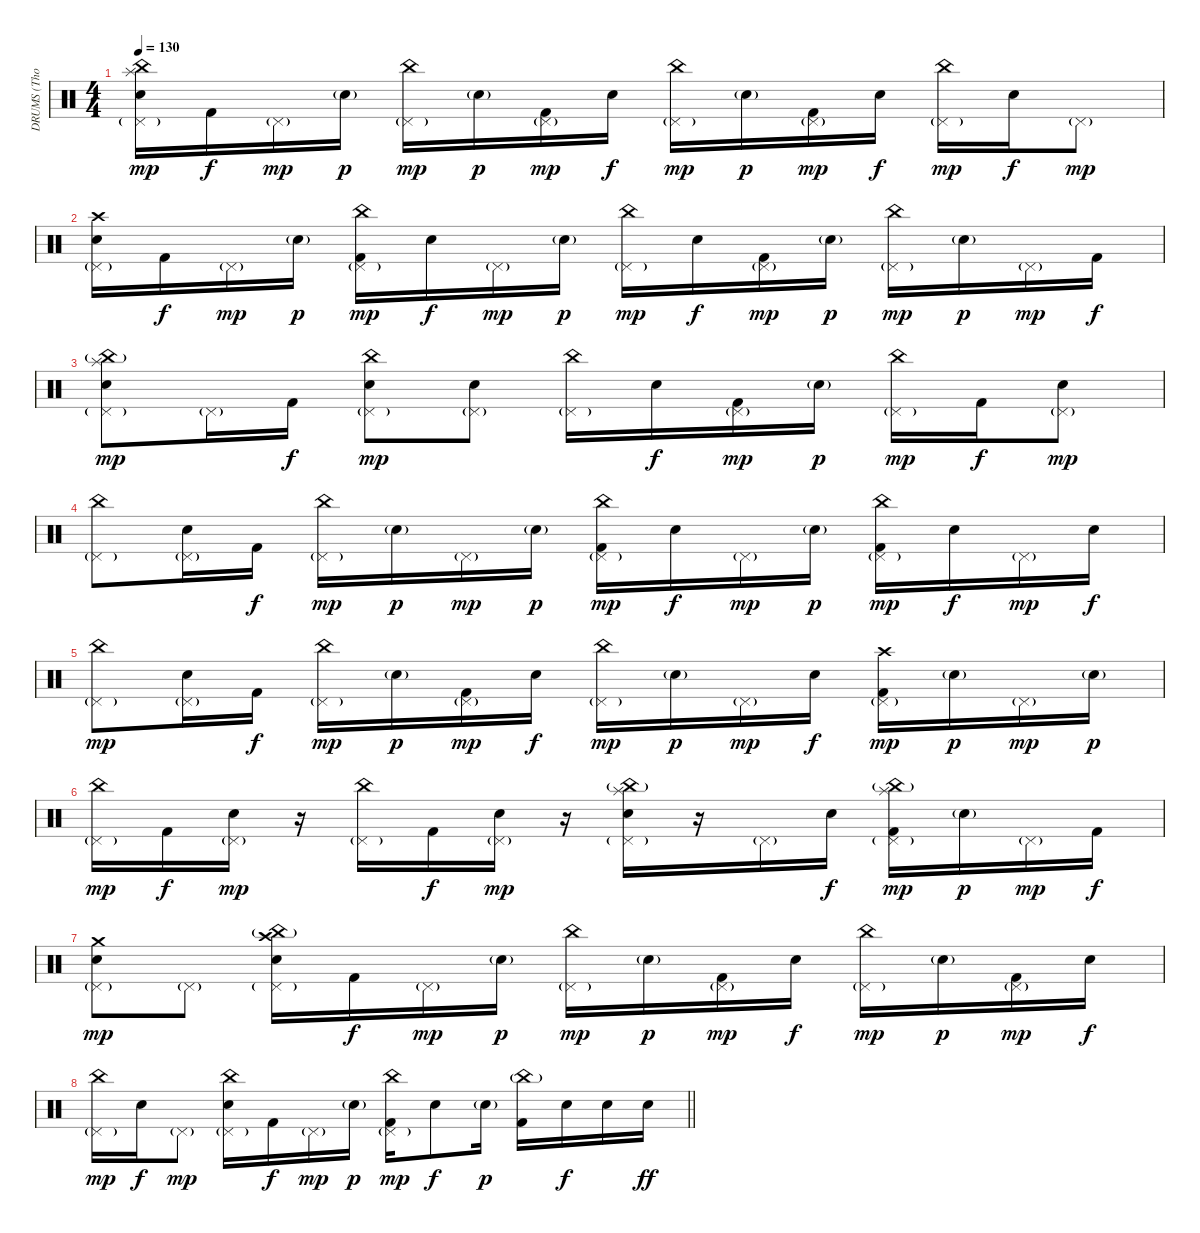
\track ("DRUMS (Thomas Haake)" "DRUMS (Tho") {instrument percussion}
\staff {score}
\articulation defaults
\ts (4 4)
\tempo 130
\clef neutral
\ks c
("China (hit)" "Pedal Hi-Hat (hit)"{g} "Splash (hit)" "Electric Snare (hit)").16{dy mp} "Kick (hit) 2".16{dy f} "Pedal Hi-Hat (hit)"{g}.16{dy mp} "Electric Snare (hit)"{g}.16{dy p} ("China (hit)" "Pedal Hi-Hat (hit)"{g}).16{dy mp} "Electric Snare (hit)"{g}.16{dy p} ("Pedal Hi-Hat (hit)"{g} "Kick (hit) 2").16{dy mp} "Electric Snare (hit)".16{dy f} ("China (hit)" "Pedal Hi-Hat (hit)"{g}).16{dy mp} "Electric Snare (hit)"{g}.16{dy p} ("Pedal Hi-Hat (hit)"{g} "Kick (hit) 2").16{dy mp} "Electric Snare (hit)".16{dy f} ("China (hit)" "Pedal Hi-Hat (hit)"{g}).16{dy mp} "Electric Snare (hit)".16{dy f} "Pedal Hi-Hat (hit)"{g}.8{dy mp} |
("Crash high (hit)" "Pedal Hi-Hat (hit)"{g} "Electric Snare (hit)").16 "Kick (hit) 2".16{dy f} "Pedal Hi-Hat (hit)"{g}.16{dy mp} "Electric Snare (hit)"{g}.16{dy p} ("China (hit)" "Pedal Hi-Hat (hit)"{g} "Kick (hit) 2").16{dy mp} "Electric Snare (hit)".16{dy f} "Pedal Hi-Hat (hit)"{g}.16{dy mp} "Electric Snare (hit)"{g}.16{dy p} ("China (hit)" "Pedal Hi-Hat (hit)"{g}).16{dy mp} "Electric Snare (hit)".16{dy f} ("Pedal Hi-Hat (hit)"{g} "Kick (hit) 2").16{dy mp} "Electric Snare (hit)"{g}.16{dy p} ("China (hit)" "Pedal Hi-Hat (hit)"{g}).16{dy mp} "Electric Snare (hit)"{g}.16{dy p} "Pedal Hi-Hat (hit)"{g}.16{dy mp} "Kick (hit) 2".16{dy f} |
("Splash (hit)" "Pedal Hi-Hat (hit)"{g} "China (hit)"{g} "Electric Snare (hit)").8{dy mp} "Pedal Hi-Hat (hit)"{g}.16 "Kick (hit) 2".16{dy f} ("China (hit)" "Pedal Hi-Hat (hit)"{g} "Electric Snare (hit)").8{dy mp} ("Pedal Hi-Hat (hit)"{g} "Electric Snare (hit)").8 ("China (hit)" "Pedal Hi-Hat (hit)"{g}).16 "Electric Snare (hit)".16{dy f} ("Pedal Hi-Hat (hit)"{g} "Kick (hit) 2").16{dy mp} "Electric Snare (hit)"{g}.16{dy p} ("China (hit)" "Pedal Hi-Hat (hit)"{g}).16{dy mp} "Kick (hit) 2".16{dy f} ("Pedal Hi-Hat (hit)"{g} "Electric Snare (hit)").8{dy mp} |
("China (hit)" "Pedal Hi-Hat (hit)"{g}).8 ("Pedal Hi-Hat (hit)"{g} "Electric Snare (hit)").16 "Kick (hit) 2".16{dy f} ("China (hit)" "Pedal Hi-Hat (hit)"{g}).16{dy mp} "Electric Snare (hit)"{g}.16{dy p} "Pedal Hi-Hat (hit)"{g}.16{dy mp} "Electric Snare (hit)"{g}.16{dy p} ("China (hit)" "Pedal Hi-Hat (hit)"{g} "Kick (hit) 2").16{dy mp} "Electric Snare (hit)".16{dy f} "Pedal Hi-Hat (hit)"{g}.16{dy mp} "Electric Snare (hit)"{g}.16{dy p} ("China (hit)" "Pedal Hi-Hat (hit)"{g} "Kick (hit) 2").16{dy mp} "Electric Snare (hit)".16{dy f} "Pedal Hi-Hat (hit)"{g}.16{dy mp} "Electric Snare (hit)".16{dy f} |
("China (hit)" "Pedal Hi-Hat (hit)"{g}).8{dy mp} ("Pedal Hi-Hat (hit)"{g} "Electric Snare (hit)").16 "Kick (hit) 2".16{dy f} ("China (hit)" "Pedal Hi-Hat (hit)"{g}).16{dy mp} "Electric Snare (hit)"{g}.16{dy p} ("Pedal Hi-Hat (hit)"{g} "Kick (hit) 2").16{dy mp} "Electric Snare (hit)".16{dy f} ("China (hit)" "Pedal Hi-Hat (hit)"{g}).16{dy mp} "Electric Snare (hit)"{g}.16{dy p} "Pedal Hi-Hat (hit)"{g}.16{dy mp} "Electric Snare (hit)".16{dy f} ("Crash high (hit)" "Pedal Hi-Hat (hit)"{g} "Kick (hit) 2").16{dy mp} "Electric Snare (hit)"{g}.16{dy p} "Pedal Hi-Hat (hit)"{g}.16{dy mp} "Electric Snare (hit)"{g}.16{dy p} |
("China (hit)" "Pedal Hi-Hat (hit)"{g}).16{dy mp} "Kick (hit) 2".16{dy f} ("Pedal Hi-Hat (hit)"{g} "Electric Snare (hit)").16{dy mp} r.16 ("China (hit)" "Pedal Hi-Hat (hit)"{g}).16 "Kick (hit) 2".16{dy f} ("Pedal Hi-Hat (hit)"{g} "Electric Snare (hit)").16{dy mp} r.16 ("Splash (hit)" "Pedal Hi-Hat (hit)"{g} "China (hit)"{g} "Electric Snare (hit)").16 r.16 "Pedal Hi-Hat (hit)"{g}.16 "Electric Snare (hit)".16{dy f} ("Splash (hit)" "Pedal Hi-Hat (hit)"{g} "China (hit)"{g} "Kick (hit) 2").16{dy mp} "Electric Snare (hit)"{g}.16{dy p} "Pedal Hi-Hat (hit)"{g}.16{dy mp} "Kick (hit) 2".16{dy f} |
("Crash medium (hit)" "Pedal Hi-Hat (hit)"{g} "Electric Snare (hit)").8{dy mp} "Pedal Hi-Hat (hit)"{g}.8 ("Crash high (hit)" "Pedal Hi-Hat (hit)"{g} "China (hit)"{g} "Electric Snare (hit)").16 "Kick (hit) 2".16{dy f} "Pedal Hi-Hat (hit)"{g}.16{dy mp} "Electric Snare (hit)"{g}.16{dy p} ("China (hit)" "Pedal Hi-Hat (hit)"{g}).16{dy mp} "Electric Snare (hit)"{g}.16{dy p} ("Pedal Hi-Hat (hit)"{g} "Kick (hit) 2").16{dy mp} "Electric Snare (hit)".16{dy f} ("China (hit)" "Pedal Hi-Hat (hit)"{g}).16{dy mp} "Electric Snare (hit)"{g}.16{dy p} ("Pedal Hi-Hat (hit)"{g} "Kick (hit) 2").16{dy mp} "Electric Snare (hit)".16{dy f} |
\barLineRight lightlight
("China (hit)" "Pedal Hi-Hat (hit)"{g}).16{dy mp} "Electric Snare (hit)".16{dy f} "Pedal Hi-Hat (hit)"{g}.8{dy mp} ("China (hit)" "Pedal Hi-Hat (hit)"{g} "Electric Snare (hit)").16 "Kick (hit) 2".16{dy f} "Pedal Hi-Hat (hit)"{g}.16{dy mp} "Electric Snare (hit)"{g}.16{dy p} ("China (hit)" "Pedal Hi-Hat (hit)"{g} "Kick (hit) 2").16{dy mp} "Electric Snare (hit)".8{dy f} "Electric Snare (hit)"{g}.16{dy p} ("China (hit)"{g} "Kick (hit) 2").16 "Electric Snare (hit)".16{dy f} "Electric Snare (hit)".16 "Electric Snare (hit)".16{dy ff}
